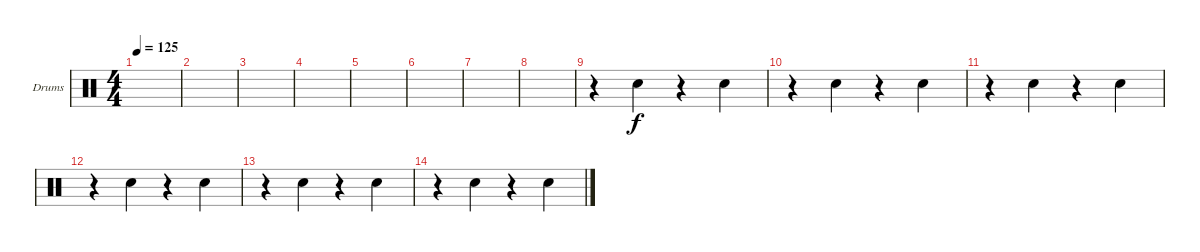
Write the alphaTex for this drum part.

\defaultSystemsLayout 4
\bracketExtendMode groupsimilarinstruments
\firstSystemTrackNameOrientation horizontal
\otherSystemsTrackNameOrientation horizontal
\track ("Drumkit" "Drums") {instrument percussion}
\staff {score}
\articulation defaults
\ts (4 4)
\tempo 125
\clef neutral
\scale
0.333333
\ks c
|
\scale
0.333333 |
\scale
0.333333 |
\scale
0.333333 |
\scale
0.333333 |
\scale
0.333333 |
\scale
0.333333 |
\scale
0.333333 |
\scale
0.333333 r.4 "Snare (hit) 2".4 r.4 "Snare (hit) 2".4 |
\scale
0.333333 r.4 "Snare (hit) 2".4 r.4 "Snare (hit) 2".4 |
\scale
0.333333 r.4 "Snare (hit) 2".4 r.4 "Snare (hit) 2".4 |
\scale
0.333333 r.4 "Snare (hit) 2".4 r.4 "Snare (hit) 2".4 |
\scale
0.333333 r.4 "Snare (hit) 2".4 r.4 "Snare (hit) 2".4 |
\scale
0.333333 r.4 "Snare (hit) 2".4 r.4 "Snare (hit) 2".4 |
\scale
0.333333 |
\scale
0.333333
